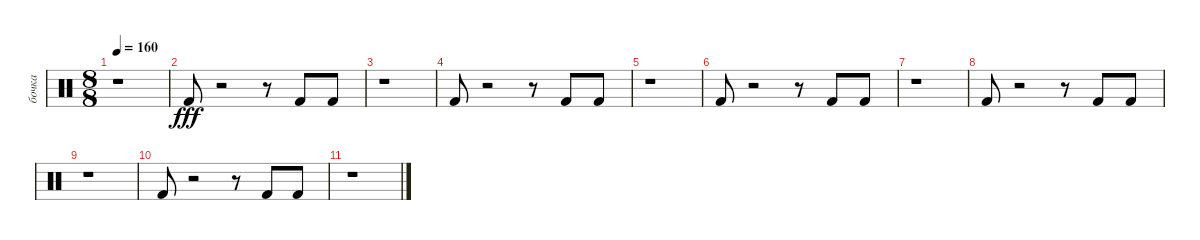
\track ("бочка" "бочка") {instrument percussion}
\staff {score}
\articulation defaults
\ts (8 8)
\tempo 160
\clef neutral
\ks c
r.1{dy fff} |
"Kick (hit) 2".8{volume 15} r.2 r.8 "Kick (hit) 2".8{volume 14} "Kick (hit) 2".8{volume 14} |
r.1 |
"Kick (hit) 2".8{volume 12} r.2 r.8 "Kick (hit) 2".8{volume 11} "Kick (hit) 2".8 |
r.1 |
"Kick (hit) 2".8{volume 9} r.2 r.8 "Kick (hit) 2".8{volume 8} "Kick (hit) 2".8{volume 8} |
r.1 |
"Kick (hit) 2".8{volume 6} r.2 r.8 "Kick (hit) 2".8{volume 5} "Kick (hit) 2".8{volume 5} |
r.1 |
"Kick (hit) 2".8{volume 2} r.2 r.8 "Kick (hit) 2".8{volume 2} "Kick (hit) 2".8{volume 1} |
r.1
